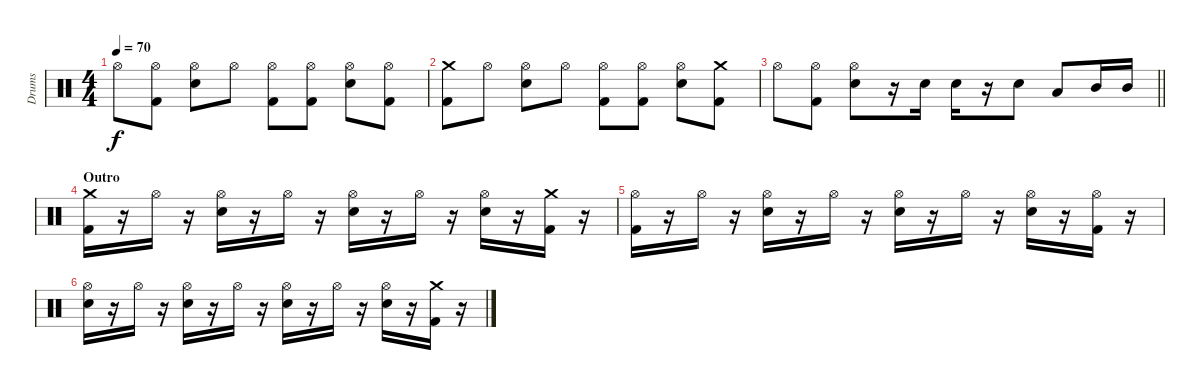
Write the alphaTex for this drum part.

\track ("Drums" "Drums") {instrument percussion}
\staff {score}
\articulation defaults
\ts (4 4)
\tempo 70
\clef neutral
\ks c "Hi-Hat (open)".8{dy f}
("Hi-Hat (open)" "Kick (hit) 2").8 ("Hi-Hat (open)" "Snare (hit) 2").8 "Hi-Hat (open)".8 ("Hi-Hat (open)" "Kick (hit) 2").8 ("Hi-Hat (open)" "Kick (hit) 2").8 ("Hi-Hat (open)" "Snare (hit) 2").8 ("Hi-Hat (open)" "Kick (hit) 2").8 |
("Crash medium (hit)" "Kick (hit) 2").8 "Hi-Hat (open)".8 ("Hi-Hat (open)" "Snare (hit) 2").8 "Hi-Hat (open)".8 ("Hi-Hat (open)" "Kick (hit) 2").8 ("Hi-Hat (open)" "Kick (hit) 2").8 ("Hi-Hat (open)" "Snare (hit) 2").8 ("Crash medium (hit)" "Kick (hit) 2").8 |
\barLineRight lightlight "Hi-Hat (open)".8
("Hi-Hat (open)" "Kick (hit) 2").8 ("Hi-Hat (open)" "Snare (hit) 2").8 r.16 "Snare (hit) 2".16 "Snare (hit) 2".16 r.16 "Snare (hit) 2".8 "Low Tom (hit)".8 "Mid Tom (hit)".16 "Mid Tom (hit)".16 |
\section ("" "Outro")
("Crash medium (hit)" "Kick (hit) 2").16 r.16 "Hi-Hat (open)".16 r.16 ("Hi-Hat (open)" "Snare (hit) 2").16 r.16 "Hi-Hat (open)".16 r.16 ("Hi-Hat (open)" "Snare (hit) 2").16 r.16 "Hi-Hat (open)".16 r.16 ("Hi-Hat (open)" "Snare (hit) 2").16 r.16 ("Crash medium (hit)" "Kick (hit) 2").16 r.16 |
("Hi-Hat (open)" "Kick (hit) 2").16 r.16 "Hi-Hat (open)".16 r.16 ("Hi-Hat (open)" "Snare (hit) 2").16 r.16 "Hi-Hat (open)".16 r.16 ("Hi-Hat (open)" "Snare (hit) 2").16 r.16 "Hi-Hat (open)".16 r.16 ("Hi-Hat (open)" "Snare (hit) 2").16 r.16 ("Hi-Hat (open)" "Kick (hit) 2").16 r.16 |
("Hi-Hat (open)" "Snare (hit) 2").16 r.16 "Hi-Hat (open)".16 r.16 ("Hi-Hat (open)" "Snare (hit) 2").16 r.16 "Hi-Hat (open)".16 r.16 ("Hi-Hat (open)" "Snare (hit) 2").16 r.16 "Hi-Hat (open)".16 r.16 ("Hi-Hat (open)" "Snare (hit) 2").16 r.16 ("Crash medium (hit)" "Kick (hit) 2").16 r.16
